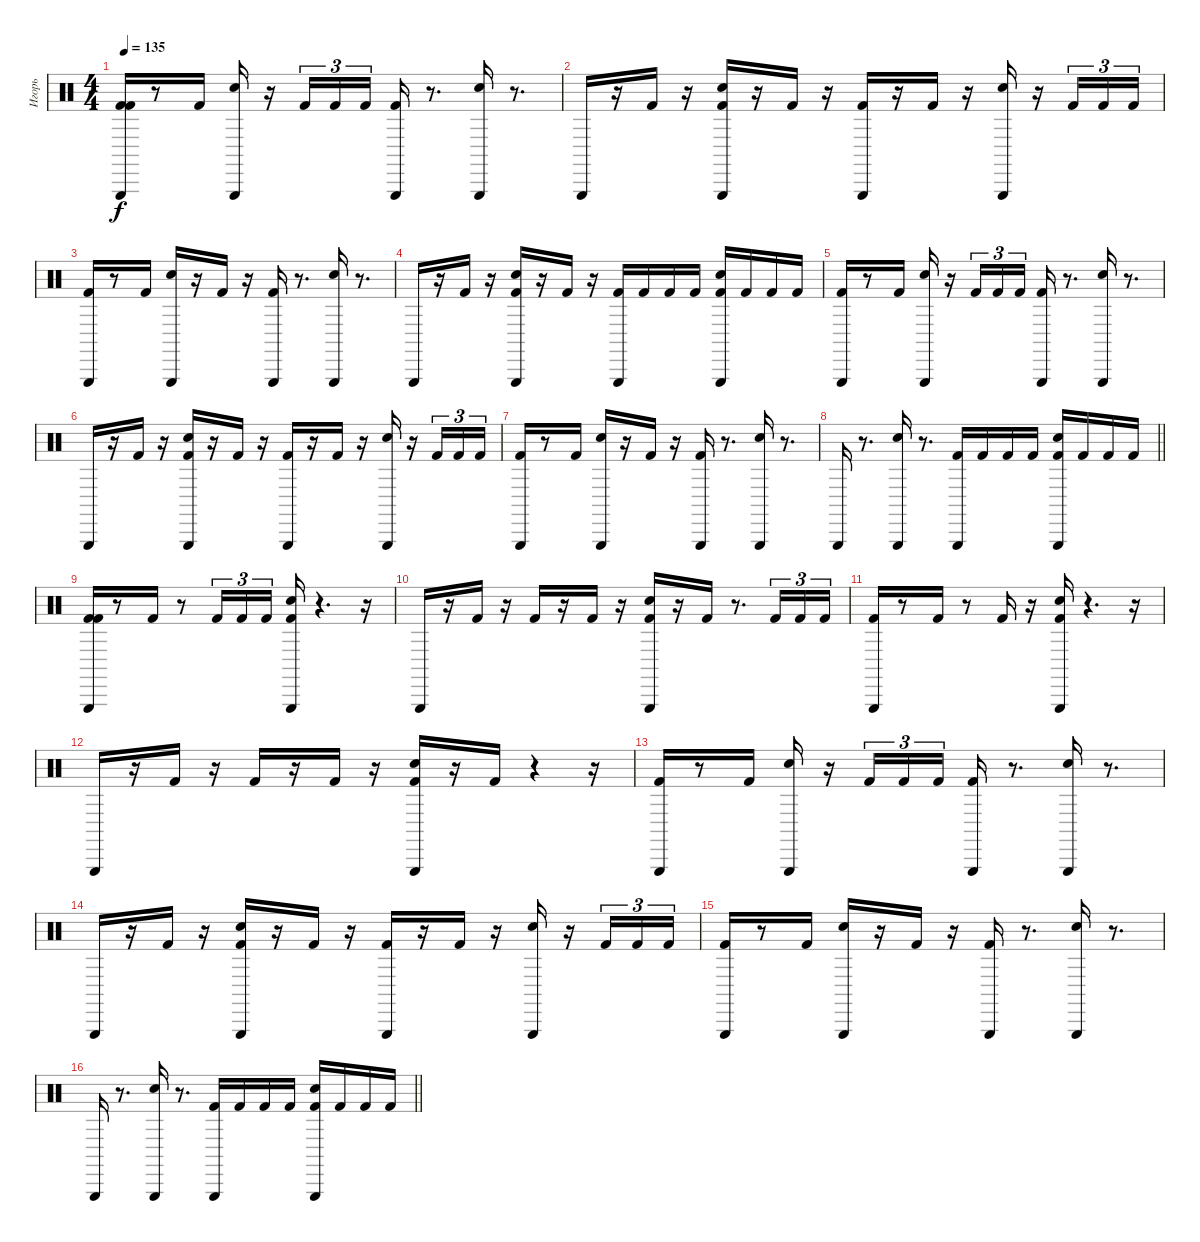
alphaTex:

\track ("Игорь" "Игорь") {instrument percussion}
\staff {score}
\articulation defaults
\ts (4 4)
\tempo 135
\clef neutral
\ks c
("Kick (hit) 2" "Kick (hit) 2" "Triangle (hit)").16{dy f} r.8 "Kick (hit) 2".16 ("Snare (hit) 2" "Triangle (hit)").16 r.16 "Kick (hit) 2".16{tu (3 2)} "Kick (hit) 2".16{tu (3 2)} "Kick (hit) 2".16{tu (3 2)} ("Kick (hit) 2" "Triangle (hit)").16 r.8{d} ("Snare (hit) 2" "Triangle (hit)").16 r.8{d} |
"Triangle (hit)".16 r.16 "Kick (hit) 2".16 r.16 ("Kick (hit) 2" "Snare (hit) 2" "Triangle (hit)").16 r.16 "Kick (hit) 2".16 r.16 ("Kick (hit) 2" "Triangle (hit)").16 r.16 "Kick (hit) 2".16 r.16 ("Snare (hit) 2" "Triangle (hit)").16 r.16 "Kick (hit) 2".16{tu (3 2)} "Kick (hit) 2".16{tu (3 2)} "Kick (hit) 2".16{tu (3 2)} |
("Kick (hit) 2" "Triangle (hit)").16 r.8 "Kick (hit) 2".16 ("Snare (hit) 2" "Triangle (hit)").16 r.16 "Kick (hit) 2".16 r.16 ("Kick (hit) 2" "Triangle (hit)").16 r.8{d} ("Snare (hit) 2" "Triangle (hit)").16 r.8{d} |
"Triangle (hit)".16 r.16 "Kick (hit) 2".16 r.16 ("Kick (hit) 2" "Snare (hit) 2" "Triangle (hit)").16 r.16 "Kick (hit) 2".16 r.16 ("Kick (hit) 2" "Triangle (hit)").16 "Kick (hit) 2".16 "Kick (hit) 2".16 "Kick (hit) 2".16 ("Kick (hit) 2" "Snare (hit) 2" "Triangle (hit)").16 "Kick (hit) 2".16 "Kick (hit) 2".16 "Kick (hit) 2".16 |
("Kick (hit) 2" "Triangle (hit)").16 r.8 "Kick (hit) 2".16 ("Snare (hit) 2" "Triangle (hit)").16 r.16 "Kick (hit) 2".16{tu (3 2)} "Kick (hit) 2".16{tu (3 2)} "Kick (hit) 2".16{tu (3 2)} ("Kick (hit) 2" "Triangle (hit)").16 r.8{d} ("Snare (hit) 2" "Triangle (hit)").16 r.8{d} |
"Triangle (hit)".16 r.16 "Kick (hit) 2".16 r.16 ("Kick (hit) 2" "Snare (hit) 2" "Triangle (hit)").16 r.16 "Kick (hit) 2".16 r.16 ("Kick (hit) 2" "Triangle (hit)").16 r.16 "Kick (hit) 2".16 r.16 ("Snare (hit) 2" "Triangle (hit)").16 r.16 "Kick (hit) 2".16{tu (3 2)} "Kick (hit) 2".16{tu (3 2)} "Kick (hit) 2".16{tu (3 2)} |
("Kick (hit) 2" "Triangle (hit)").16 r.8 "Kick (hit) 2".16 ("Snare (hit) 2" "Triangle (hit)").16 r.16 "Kick (hit) 2".16 r.16 ("Kick (hit) 2" "Triangle (hit)").16 r.8{d} ("Snare (hit) 2" "Triangle (hit)").16 r.8{d} |
\barLineRight lightlight "Triangle (hit)".16
r.8{d} ("Snare (hit) 2" "Triangle (hit)").16 r.8{d} ("Kick (hit) 2" "Triangle (hit)").16 "Kick (hit) 2".16 "Kick (hit) 2".16 "Kick (hit) 2".16 ("Kick (hit) 2" "Snare (hit) 2" "Triangle (hit)").16 "Kick (hit) 2".16 "Kick (hit) 2".16 "Kick (hit) 2".16 |
("Kick (hit) 2" "Kick (hit) 2" "Triangle (hit)").16 r.8 "Kick (hit) 2".16 r.8 "Kick (hit) 2".16{tu (3 2)} "Kick (hit) 2".16{tu (3 2)} "Kick (hit) 2".16{tu (3 2)} ("Kick (hit) 2" "Snare (hit) 2" "Triangle (hit)").16 r.4{d} r.16 |
"Triangle (hit)".16 r.16 "Kick (hit) 2".16 r.16 "Kick (hit) 2".16 r.16 "Kick (hit) 2".16 r.16 ("Kick (hit) 2" "Snare (hit) 2" "Triangle (hit)").16 r.16 "Kick (hit) 2".16 r.8{d} "Kick (hit) 2".16{tu (3 2)} "Kick (hit) 2".16{tu (3 2)} "Kick (hit) 2".16{tu (3 2)} |
("Kick (hit) 2" "Triangle (hit)").16 r.8 "Kick (hit) 2".16 r.8 "Kick (hit) 2".16 r.16 ("Kick (hit) 2" "Snare (hit) 2" "Triangle (hit)").16 r.4{d} r.16 |
"Triangle (hit)".16 r.16 "Kick (hit) 2".16 r.16 "Kick (hit) 2".16 r.16 "Kick (hit) 2".16 r.16 ("Kick (hit) 2" "Snare (hit) 2" "Triangle (hit)").16 r.16 "Kick (hit) 2".16 r.4 r.16 |
("Kick (hit) 2" "Triangle (hit)").16 r.8 "Kick (hit) 2".16 ("Snare (hit) 2" "Triangle (hit)").16 r.16 "Kick (hit) 2".16{tu (3 2)} "Kick (hit) 2".16{tu (3 2)} "Kick (hit) 2".16{tu (3 2)} ("Kick (hit) 2" "Triangle (hit)").16 r.8{d} ("Snare (hit) 2" "Triangle (hit)").16 r.8{d} |
"Triangle (hit)".16 r.16 "Kick (hit) 2".16 r.16 ("Kick (hit) 2" "Snare (hit) 2" "Triangle (hit)").16 r.16 "Kick (hit) 2".16 r.16 ("Kick (hit) 2" "Triangle (hit)").16 r.16 "Kick (hit) 2".16 r.16 ("Snare (hit) 2" "Triangle (hit)").16 r.16 "Kick (hit) 2".16{tu (3 2)} "Kick (hit) 2".16{tu (3 2)} "Kick (hit) 2".16{tu (3 2)} |
("Kick (hit) 2" "Triangle (hit)").16 r.8 "Kick (hit) 2".16 ("Snare (hit) 2" "Triangle (hit)").16 r.16 "Kick (hit) 2".16 r.16 ("Kick (hit) 2" "Triangle (hit)").16 r.8{d} ("Snare (hit) 2" "Triangle (hit)").16 r.8{d} |
\barLineRight lightlight "Triangle (hit)".16
r.8{d} ("Snare (hit) 2" "Triangle (hit)").16 r.8{d} ("Kick (hit) 2" "Triangle (hit)").16 "Kick (hit) 2".16 "Kick (hit) 2".16 "Kick (hit) 2".16 ("Kick (hit) 2" "Snare (hit) 2" "Triangle (hit)").16 "Kick (hit) 2".16 "Kick (hit) 2".16 "Kick (hit) 2".16
